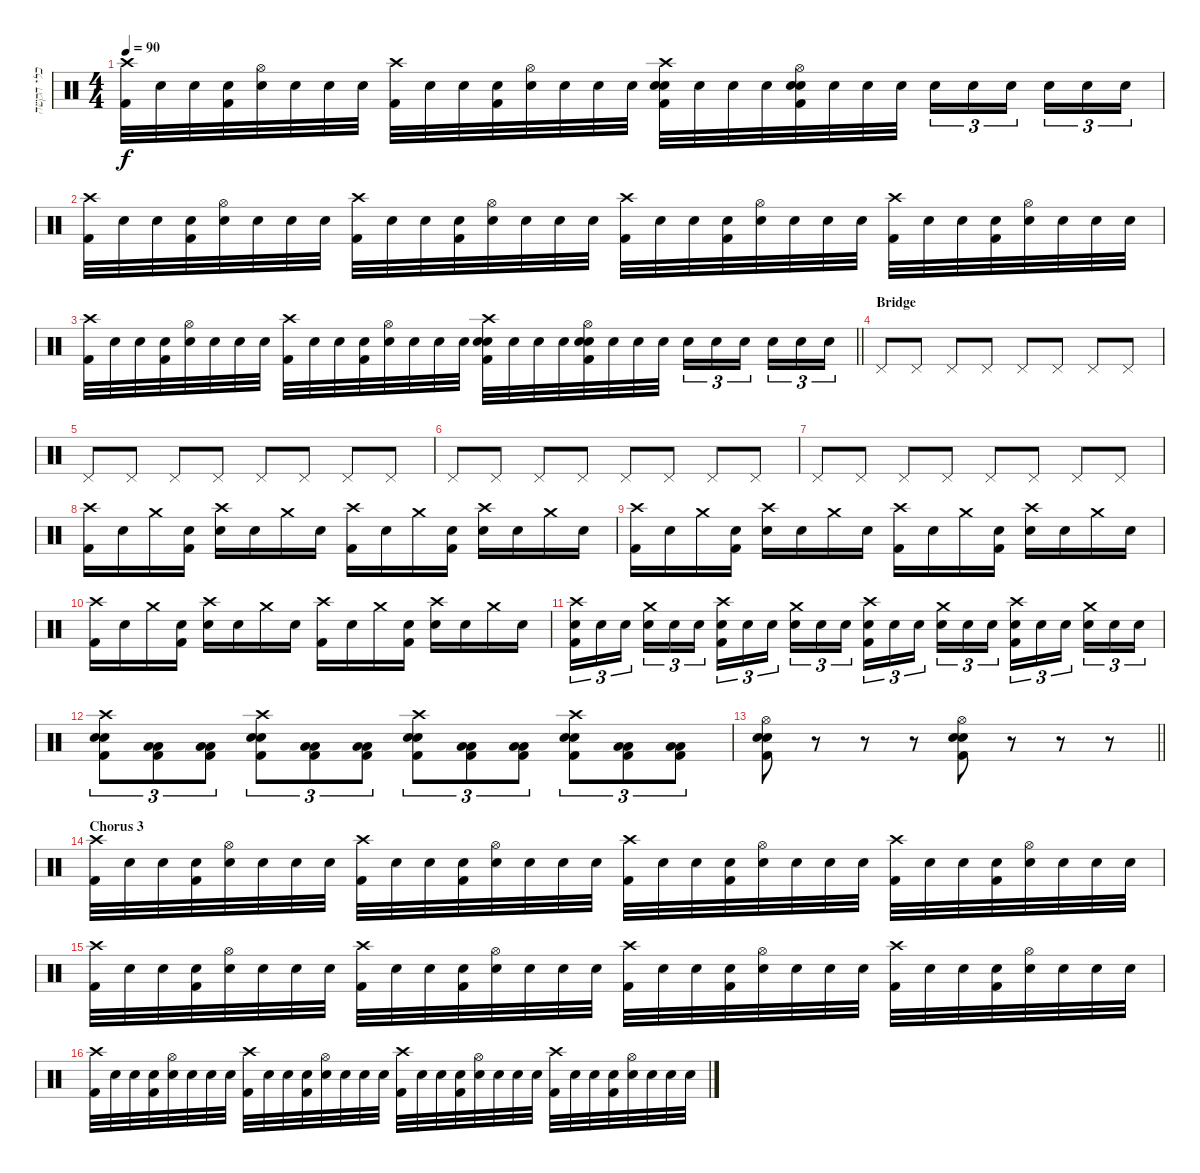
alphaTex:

\track ("כלי הקשה" "כלי הקשה") {instrument percussion bank 127}
\staff {score}
\articulation defaults
\ts (4 4)
\tempo 90
\clef neutral
\ks c
("Crash high (hit)" "Kick (hit) 2").32{dy f} "Snare (hit)".32 "Snare (hit)".32 ("Snare (hit)" "Kick (hit) 2").32 ("Hi-Hat (open)" "Snare (hit) 2").32 "Snare (hit)".32 "Snare (hit)".32 "Snare (hit)".32 ("Crash high (hit)" "Kick (hit) 2").32 "Snare (hit)".32 "Snare (hit)".32 ("Snare (hit)" "Kick (hit) 2").32 ("Hi-Hat (open)" "Snare (hit) 2").32 "Snare (hit)".32 "Snare (hit)".32 "Snare (hit)".32 ("Crash high (hit)" "Snare (hit) 2" "Snare (hit) 2" "Kick (hit) 2").32 "Snare (hit)".32 "Snare (hit)".32 "Snare (hit)".32 ("Hi-Hat (open)" "Snare (hit) 2" "Snare (hit) 2" "Kick (hit) 2").32 "Snare (hit)".32 "Snare (hit)".32 "Snare (hit)".32 "Snare (hit) 2".16{tu (3 2)} "Snare (hit) 2".16{tu (3 2)} "Snare (hit) 2".16{tu (3 2) beam splitsecondary} "Snare (hit) 2".16{tu (3 2)} "Snare (hit) 2".16{tu (3 2)} "Snare (hit) 2".16{tu (3 2)} |
("Crash high (hit)" "Kick (hit) 2").32 "Snare (hit)".32 "Snare (hit)".32 ("Snare (hit)" "Kick (hit) 2").32 ("Hi-Hat (open)" "Snare (hit) 2").32 "Snare (hit)".32 "Snare (hit)".32 "Snare (hit)".32 ("Crash high (hit)" "Kick (hit) 2").32 "Snare (hit)".32 "Snare (hit)".32 ("Snare (hit)" "Kick (hit) 2").32 ("Hi-Hat (open)" "Snare (hit) 2").32 "Snare (hit)".32 "Snare (hit)".32 "Snare (hit)".32 ("Crash high (hit)" "Kick (hit) 2").32 "Snare (hit)".32 "Snare (hit)".32 ("Snare (hit)" "Kick (hit) 2").32 ("Hi-Hat (open)" "Snare (hit) 2").32 "Snare (hit)".32 "Snare (hit)".32 "Snare (hit)".32 ("Crash high (hit)" "Kick (hit) 2").32 "Snare (hit)".32 "Snare (hit)".32 ("Snare (hit)" "Kick (hit) 2").32 ("Hi-Hat (open)" "Snare (hit) 2").32 "Snare (hit)".32 "Snare (hit)".32 "Snare (hit)".32 |
\barLineRight lightlight
("Crash high (hit)" "Kick (hit) 2").32 "Snare (hit)".32 "Snare (hit)".32 ("Snare (hit)" "Kick (hit) 2").32 ("Hi-Hat (open)" "Snare (hit) 2").32 "Snare (hit)".32 "Snare (hit)".32 "Snare (hit)".32 ("Crash high (hit)" "Kick (hit) 2").32 "Snare (hit)".32 "Snare (hit)".32 ("Snare (hit)" "Kick (hit) 2").32 ("Hi-Hat (open)" "Snare (hit) 2").32 "Snare (hit)".32 "Snare (hit)".32 "Snare (hit)".32 ("Crash high (hit)" "Snare (hit) 2" "Snare (hit) 2" "Kick (hit) 2").32 "Snare (hit)".32 "Snare (hit)".32 "Snare (hit)".32 ("Hi-Hat (open)" "Snare (hit) 2" "Snare (hit) 2" "Kick (hit) 2").32 "Snare (hit)".32 "Snare (hit)".32 "Snare (hit)".32 "Snare (hit) 2".16{tu (3 2)} "Snare (hit) 2".16{tu (3 2)} "Snare (hit) 2".16{tu (3 2) beam splitsecondary} "Snare (hit) 2".16{tu (3 2)} "Snare (hit) 2".16{tu (3 2)} "Snare (hit) 2".16{tu (3 2)} |
\section ("" "Bridge")
"Pedal Hi-Hat (hit)".8 "Pedal Hi-Hat (hit)".8 "Pedal Hi-Hat (hit)".8 "Pedal Hi-Hat (hit)".8 "Pedal Hi-Hat (hit)".8 "Pedal Hi-Hat (hit)".8 "Pedal Hi-Hat (hit)".8 "Pedal Hi-Hat (hit)".8 |
"Pedal Hi-Hat (hit)".8 "Pedal Hi-Hat (hit)".8 "Pedal Hi-Hat (hit)".8 "Pedal Hi-Hat (hit)".8 "Pedal Hi-Hat (hit)".8 "Pedal Hi-Hat (hit)".8 "Pedal Hi-Hat (hit)".8 "Pedal Hi-Hat (hit)".8 |
"Pedal Hi-Hat (hit)".8 "Pedal Hi-Hat (hit)".8 "Pedal Hi-Hat (hit)".8 "Pedal Hi-Hat (hit)".8 "Pedal Hi-Hat (hit)".8 "Pedal Hi-Hat (hit)".8 "Pedal Hi-Hat (hit)".8 "Pedal Hi-Hat (hit)".8 |
"Pedal Hi-Hat (hit)".8 "Pedal Hi-Hat (hit)".8 "Pedal Hi-Hat (hit)".8 "Pedal Hi-Hat (hit)".8 "Pedal Hi-Hat (hit)".8 "Pedal Hi-Hat (hit)".8 "Pedal Hi-Hat (hit)".8 "Pedal Hi-Hat (hit)".8 |
("Crash high (hit)" "Kick (hit) 2").16 "Snare (hit)".16 "Crash medium (hit)".16 ("Snare (hit)" "Kick (hit) 2").16 ("Crash high (hit)" "Snare (hit) 2").16 "Snare (hit)".16 "Crash medium (hit)".16 "Snare (hit)".16 ("Crash high (hit)" "Kick (hit) 2").16 "Snare (hit)".16 "Crash medium (hit)".16 ("Snare (hit)" "Kick (hit) 2").16 ("Crash high (hit)" "Snare (hit) 2").16 "Snare (hit)".16 "Crash medium (hit)".16 "Snare (hit)".16 |
("Crash high (hit)" "Kick (hit) 2").16 "Snare (hit)".16 "Crash medium (hit)".16 ("Snare (hit)" "Kick (hit) 2").16 ("Crash high (hit)" "Snare (hit) 2").16 "Snare (hit)".16 "Crash medium (hit)".16 "Snare (hit)".16 ("Crash high (hit)" "Kick (hit) 2").16 "Snare (hit)".16 "Crash medium (hit)".16 ("Snare (hit)" "Kick (hit) 2").16 ("Crash high (hit)" "Snare (hit) 2").16 "Snare (hit)".16 "Crash medium (hit)".16 "Snare (hit)".16 |
("Crash high (hit)" "Kick (hit) 2").16 "Snare (hit)".16 "Crash medium (hit)".16 ("Snare (hit)" "Kick (hit) 2").16 ("Crash high (hit)" "Snare (hit) 2").16 "Snare (hit)".16 "Crash medium (hit)".16 "Snare (hit)".16 ("Crash high (hit)" "Kick (hit) 2").16 "Snare (hit)".16 "Crash medium (hit)".16 ("Snare (hit)" "Kick (hit) 2").16 ("Crash high (hit)" "Snare (hit) 2").16 "Snare (hit)".16 "Crash medium (hit)".16 "Snare (hit)".16 |
("Crash high (hit)" "Snare (hit) 2" "Kick (hit) 2").16{tu (3 2)} "Snare (hit) 2".16{tu (3 2)} "Snare (hit) 2".16{tu (3 2) beam splitsecondary} ("Crash medium (hit)" "Snare (hit) 2").16{tu (3 2)} "Snare (hit) 2".16{tu (3 2)} "Snare (hit) 2".16{tu (3 2)} ("Crash high (hit)" "Snare (hit) 2" "Kick (hit) 2").16{tu (3 2)} "Snare (hit) 2".16{tu (3 2)} "Snare (hit) 2".16{tu (3 2) beam splitsecondary} ("Crash medium (hit)" "Snare (hit) 2").16{tu (3 2)} "Snare (hit) 2".16{tu (3 2)} "Snare (hit) 2".16{tu (3 2)} ("Crash high (hit)" "Snare (hit) 2" "Kick (hit) 2").16{tu (3 2)} "Snare (hit) 2".16{tu (3 2)} "Snare (hit) 2".16{tu (3 2) beam splitsecondary} ("Crash medium (hit)" "Snare (hit) 2").16{tu (3 2)} "Snare (hit) 2".16{tu (3 2)} "Snare (hit) 2".16{tu (3 2)} ("Crash high (hit)" "Snare (hit) 2" "Kick (hit) 2").16{tu (3 2)} "Snare (hit) 2".16{tu (3 2)} "Snare (hit) 2".16{tu (3 2) beam splitsecondary} ("Crash medium (hit)" "Snare (hit) 2").16{tu (3 2)} "Snare (hit) 2".16{tu (3 2)} "Snare (hit) 2".16{tu (3 2)} |
("Crash high (hit)" "Snare (hit) 2" "Snare (hit) 2" "Kick (hit) 2").8{tu (3 2)} ("Low Tom (hit)" "Low Tom (hit)" "Kick (hit) 2").8{tu (3 2)} ("Low Tom (hit)" "Low Tom (hit)" "Kick (hit) 2").8{tu (3 2)} ("Crash high (hit)" "Snare (hit) 2" "Snare (hit) 2" "Kick (hit) 2").8{tu (3 2)} ("Low Tom (hit)" "Low Tom (hit)" "Kick (hit) 2").8{tu (3 2)} ("Low Tom (hit)" "Low Tom (hit)" "Kick (hit) 2").8{tu (3 2)} ("Crash high (hit)" "Snare (hit) 2" "Snare (hit) 2" "Kick (hit) 2").8{tu (3 2)} ("Low Tom (hit)" "Low Tom (hit)" "Kick (hit) 2").8{tu (3 2)} ("Low Tom (hit)" "Low Tom (hit)" "Kick (hit) 2").8{tu (3 2)} ("Crash high (hit)" "Snare (hit) 2" "Snare (hit) 2" "Kick (hit) 2").8{tu (3 2)} ("Low Tom (hit)" "Low Tom (hit)" "Kick (hit) 2").8{tu (3 2)} ("Low Tom (hit)" "Low Tom (hit)" "Kick (hit) 2").8{tu (3 2)} |
\barLineRight lightlight
("Hi-Hat (open)" "Snare (hit) 2" "Snare (hit) 2" "Kick (hit) 2").8 r.8 r.8 r.8 ("Hi-Hat (open)" "Snare (hit) 2" "Snare (hit) 2" "Kick (hit) 2").8 r.8 r.8 r.8 |
\section ("" "Chorus 3")
("Crash high (hit)" "Kick (hit) 2").32 "Snare (hit)".32 "Snare (hit)".32 ("Snare (hit)" "Kick (hit) 2").32 ("Hi-Hat (open)" "Snare (hit) 2").32 "Snare (hit)".32 "Snare (hit)".32 "Snare (hit)".32 ("Crash high (hit)" "Kick (hit) 2").32 "Snare (hit)".32 "Snare (hit)".32 ("Snare (hit)" "Kick (hit) 2").32 ("Hi-Hat (open)" "Snare (hit) 2").32 "Snare (hit)".32 "Snare (hit)".32 "Snare (hit)".32 ("Crash high (hit)" "Kick (hit) 2").32 "Snare (hit)".32 "Snare (hit)".32 ("Snare (hit)" "Kick (hit) 2").32 ("Hi-Hat (open)" "Snare (hit) 2").32 "Snare (hit)".32 "Snare (hit)".32 "Snare (hit)".32 ("Crash high (hit)" "Kick (hit) 2").32 "Snare (hit)".32 "Snare (hit)".32 ("Snare (hit)" "Kick (hit) 2").32 ("Hi-Hat (open)" "Snare (hit) 2").32 "Snare (hit)".32 "Snare (hit)".32 "Snare (hit)".32 |
("Crash high (hit)" "Kick (hit) 2").32 "Snare (hit)".32 "Snare (hit)".32 ("Snare (hit)" "Kick (hit) 2").32 ("Hi-Hat (open)" "Snare (hit) 2").32 "Snare (hit)".32 "Snare (hit)".32 "Snare (hit)".32 ("Crash high (hit)" "Kick (hit) 2").32 "Snare (hit)".32 "Snare (hit)".32 ("Snare (hit)" "Kick (hit) 2").32 ("Hi-Hat (open)" "Snare (hit) 2").32 "Snare (hit)".32 "Snare (hit)".32 "Snare (hit)".32 ("Crash high (hit)" "Kick (hit) 2").32 "Snare (hit)".32 "Snare (hit)".32 ("Snare (hit)" "Kick (hit) 2").32 ("Hi-Hat (open)" "Snare (hit) 2").32 "Snare (hit)".32 "Snare (hit)".32 "Snare (hit)".32 ("Crash high (hit)" "Kick (hit) 2").32 "Snare (hit)".32 "Snare (hit)".32 ("Snare (hit)" "Kick (hit) 2").32 ("Hi-Hat (open)" "Snare (hit) 2").32 "Snare (hit)".32 "Snare (hit)".32 "Snare (hit)".32 |
("Crash high (hit)" "Kick (hit) 2").32 "Snare (hit)".32 "Snare (hit)".32 ("Snare (hit)" "Kick (hit) 2").32 ("Hi-Hat (open)" "Snare (hit) 2").32 "Snare (hit)".32 "Snare (hit)".32 "Snare (hit)".32 ("Crash high (hit)" "Kick (hit) 2").32 "Snare (hit)".32 "Snare (hit)".32 ("Snare (hit)" "Kick (hit) 2").32 ("Hi-Hat (open)" "Snare (hit) 2").32 "Snare (hit)".32 "Snare (hit)".32 "Snare (hit)".32 ("Crash high (hit)" "Kick (hit) 2").32 "Snare (hit)".32 "Snare (hit)".32 ("Snare (hit)" "Kick (hit) 2").32 ("Hi-Hat (open)" "Snare (hit) 2").32 "Snare (hit)".32 "Snare (hit)".32 "Snare (hit)".32 ("Crash high (hit)" "Kick (hit) 2").32 "Snare (hit)".32 "Snare (hit)".32 ("Snare (hit)" "Kick (hit) 2").32 ("Hi-Hat (open)" "Snare (hit) 2").32 "Snare (hit)".32 "Snare (hit)".32 "Snare (hit)".32
